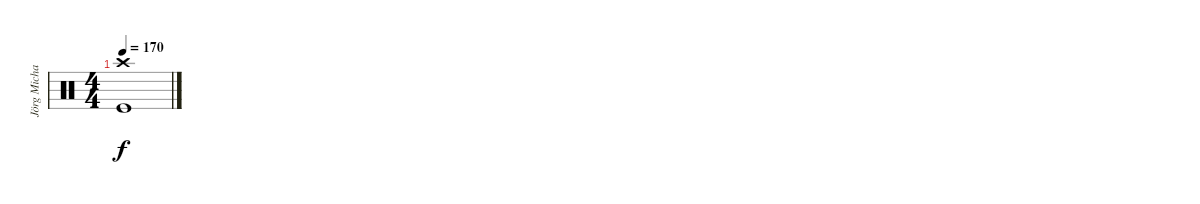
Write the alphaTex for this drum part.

\track ("Jörg Michael" "Jörg Micha") {instrument percussion}
\staff {score}
\articulation defaults
\ts (4 4)
\tempo 170
\clef neutral
\ks c
("Crash high (hit)" "Kick (hit)").1{dy f}
